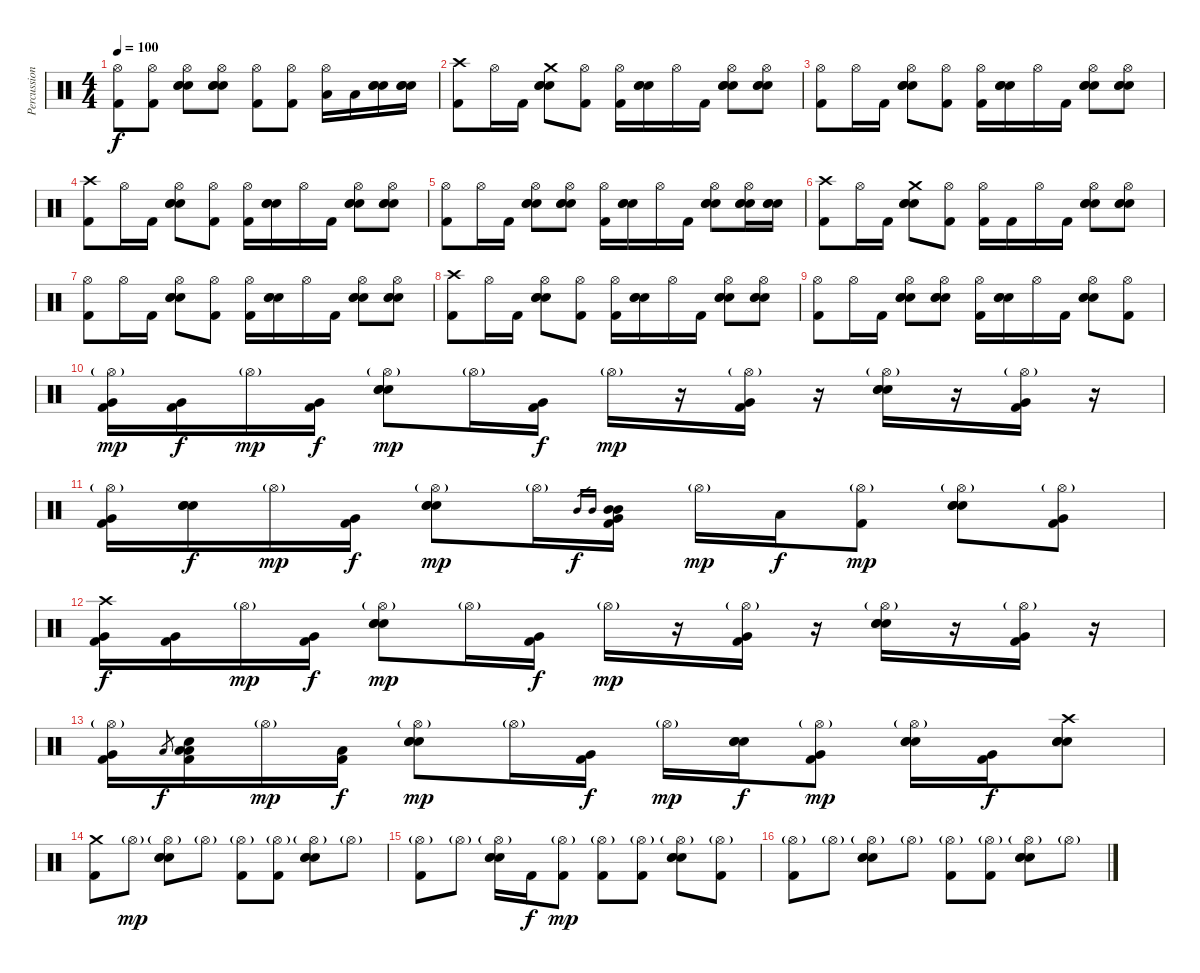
\track ("Percussions" "Percussion") {instrument percussion}
\staff {score}
\articulation defaults
\ts (4 4)
\tempo 100
\clef neutral
\ks c
("Hi-Hat (open)" "Kick (hit) 2").8{dy f} ("Hi-Hat (open)" "Kick (hit) 2").8 ("Hi-Hat (open)" "Snare (hit) 2" "Electric Snare (hit)" "Electric Snare (hit)").8 ("Hi-Hat (open)" "Snare (hit) 2" "Electric Snare (hit)" "Electric Snare (hit)").8 ("Hi-Hat (open)" "Kick (hit) 2").8 ("Hi-Hat (open)" "Kick (hit) 2").8 ("Hi-Hat (open)" "Low Tom (hit)").16 "Low Tom (hit)".16 ("Snare (hit) 2" "Electric Snare (hit)" "Electric Snare (hit)").16 ("Snare (hit) 2" "Electric Snare (hit)" "Electric Snare (hit)").16 |
("Crash high (hit)" "Kick (hit) 2").8 "Hi-Hat (open)".16 "Kick (hit) 2".16 ("Crash medium (hit)" "Snare (hit) 2" "Electric Snare (hit)" "Electric Snare (hit)").8 ("Hi-Hat (open)" "Kick (hit) 2").8 ("Hi-Hat (open)" "Kick (hit) 2").16 ("Snare (hit) 2" "Electric Snare (hit)" "Electric Snare (hit)").16 "Hi-Hat (open)".16 "Kick (hit) 2".16 ("Hi-Hat (open)" "Snare (hit) 2" "Electric Snare (hit)" "Electric Snare (hit)").8 ("Hi-Hat (open)" "Snare (hit) 2" "Electric Snare (hit)" "Electric Snare (hit)").8 |
("Hi-Hat (open)" "Kick (hit) 2").8 "Hi-Hat (open)".16 "Kick (hit) 2".16 ("Hi-Hat (open)" "Snare (hit) 2" "Electric Snare (hit)" "Electric Snare (hit)").8 ("Hi-Hat (open)" "Kick (hit) 2").8 ("Hi-Hat (open)" "Kick (hit) 2").16 ("Snare (hit) 2" "Electric Snare (hit)" "Electric Snare (hit)").16 "Hi-Hat (open)".16 "Kick (hit) 2".16 ("Hi-Hat (open)" "Snare (hit) 2" "Electric Snare (hit)" "Electric Snare (hit)").8 ("Hi-Hat (open)" "Snare (hit) 2" "Electric Snare (hit)" "Electric Snare (hit)").8 |
("Crash high (hit)" "Kick (hit) 2").8 "Hi-Hat (open)".16 "Kick (hit) 2".16 ("Hi-Hat (open)" "Snare (hit) 2" "Electric Snare (hit)" "Electric Snare (hit)").8 ("Hi-Hat (open)" "Kick (hit) 2").8 ("Hi-Hat (open)" "Kick (hit) 2").16 ("Snare (hit) 2" "Electric Snare (hit)" "Electric Snare (hit)").16 "Hi-Hat (open)".16 "Kick (hit) 2".16 ("Hi-Hat (open)" "Snare (hit) 2" "Electric Snare (hit)" "Electric Snare (hit)").8 ("Hi-Hat (open)" "Snare (hit) 2" "Electric Snare (hit)" "Electric Snare (hit)").8 |
("Hi-Hat (open)" "Kick (hit) 2").8 "Hi-Hat (open)".16 "Kick (hit) 2".16 ("Hi-Hat (open)" "Snare (hit) 2" "Electric Snare (hit)" "Electric Snare (hit)").8 ("Hi-Hat (open)" "Snare (hit) 2" "Electric Snare (hit)" "Electric Snare (hit)").8 ("Hi-Hat (open)" "Kick (hit) 2").16 ("Snare (hit) 2" "Electric Snare (hit)" "Electric Snare (hit)").16 "Hi-Hat (open)".16 "Kick (hit) 2".16 ("Hi-Hat (open)" "Snare (hit) 2" "Electric Snare (hit)" "Electric Snare (hit)").8 ("Hi-Hat (open)" "Snare (hit) 2" "Electric Snare (hit)" "Electric Snare (hit)").16 ("Snare (hit) 2" "Electric Snare (hit)" "Electric Snare (hit)").16 |
("Crash high (hit)" "Kick (hit) 2").8 "Hi-Hat (open)".16 "Kick (hit) 2".16 ("Crash medium (hit)" "Snare (hit) 2" "Electric Snare (hit)" "Electric Snare (hit)").8 ("Hi-Hat (open)" "Kick (hit) 2").8 ("Hi-Hat (open)" "Kick (hit) 2").16 "Kick (hit) 2".16 "Hi-Hat (open)".16 "Kick (hit) 2".16 ("Hi-Hat (open)" "Snare (hit) 2" "Electric Snare (hit)" "Electric Snare (hit)").8 ("Hi-Hat (open)" "Snare (hit) 2" "Electric Snare (hit)" "Electric Snare (hit)").8 |
("Hi-Hat (open)" "Kick (hit) 2").8 "Hi-Hat (open)".16 "Kick (hit) 2".16 ("Hi-Hat (open)" "Snare (hit) 2" "Electric Snare (hit)" "Electric Snare (hit)").8 ("Hi-Hat (open)" "Kick (hit) 2").8 ("Hi-Hat (open)" "Kick (hit) 2").16 ("Snare (hit) 2" "Electric Snare (hit)" "Electric Snare (hit)").16 "Hi-Hat (open)".16 "Kick (hit) 2".16 ("Hi-Hat (open)" "Snare (hit) 2" "Electric Snare (hit)" "Electric Snare (hit)").8 ("Hi-Hat (open)" "Snare (hit) 2" "Electric Snare (hit)" "Electric Snare (hit)").8 |
("Crash high (hit)" "Kick (hit) 2").8 "Hi-Hat (open)".16 "Kick (hit) 2".16 ("Hi-Hat (open)" "Snare (hit) 2" "Electric Snare (hit)" "Electric Snare (hit)").8 ("Hi-Hat (open)" "Kick (hit) 2").8 ("Hi-Hat (open)" "Kick (hit) 2").16 ("Snare (hit) 2" "Electric Snare (hit)" "Electric Snare (hit)").16 "Hi-Hat (open)".16 "Kick (hit) 2".16 ("Hi-Hat (open)" "Snare (hit) 2" "Electric Snare (hit)" "Electric Snare (hit)").8 ("Hi-Hat (open)" "Snare (hit) 2" "Electric Snare (hit)" "Electric Snare (hit)").8 |
("Hi-Hat (open)" "Kick (hit) 2").8 "Hi-Hat (open)".16 "Kick (hit) 2".16 ("Hi-Hat (open)" "Snare (hit) 2" "Electric Snare (hit)" "Electric Snare (hit)").8 ("Hi-Hat (open)" "Snare (hit) 2" "Electric Snare (hit)" "Electric Snare (hit)").8 ("Hi-Hat (open)" "Kick (hit) 2").16 ("Snare (hit) 2" "Electric Snare (hit)" "Electric Snare (hit)").16 "Hi-Hat (open)".16 "Kick (hit) 2".16 ("Hi-Hat (open)" "Snare (hit) 2" "Electric Snare (hit)" "Electric Snare (hit)").8 ("Hi-Hat (open)" "Kick (hit) 2").8 |
("Hi-Hat (open)"{g} "Kick (hit) 2" "Very Low Tom (hit)").16{dy mp} ("Kick (hit) 2" "Very Low Tom (hit)").16{dy f} "Hi-Hat (open)"{g}.16{dy mp} ("Kick (hit) 2" "Very Low Tom (hit)").16{dy f} ("Hi-Hat (open)"{g} "Snare (hit) 2" "Electric Snare (hit)" "Electric Snare (hit)").8{dy mp} "Hi-Hat (open)"{g}.16 ("Kick (hit) 2" "Very Low Tom (hit)").16{dy f} "Hi-Hat (open)"{g}.16{dy mp} r.16 ("Hi-Hat (open)"{g} "Kick (hit) 2" "Very Low Tom (hit)").16 r.16 ("Hi-Hat (open)"{g} "Snare (hit) 2" "Electric Snare (hit)" "Electric Snare (hit)").16 r.16 ("Hi-Hat (open)"{g} "Kick (hit) 2" "Very Low Tom (hit)").16 r.16 |
("Hi-Hat (open)"{g} "Kick (hit) 2" "Very Low Tom (hit)").16 ("Snare (hit) 2" "Electric Snare (hit)" "Electric Snare (hit)").16{dy f} "Hi-Hat (open)"{g}.16{dy mp} ("Kick (hit) 2" "Very Low Tom (hit)").16{dy f} ("Hi-Hat (open)"{g} "Snare (hit) 2" "Electric Snare (hit)" "Electric Snare (hit)").8{dy mp} "Hi-Hat (open)"{g}.16 "Mid Tom (hit)".16{gr dy f} "Mid Tom (hit)".16{gr} ("Mid Tom (hit)" "Mid Tom (hit)" "Very Low Tom (hit)" "Kick (hit) 2").16 "Hi-Hat (open)"{g}.16{dy mp} "Low Tom (hit)".16{dy f} ("Hi-Hat (open)"{g} "Kick (hit) 2").8{dy mp} ("Hi-Hat (open)"{g} "Snare (hit) 2" "Electric Snare (hit)" "Electric Snare (hit)").8 ("Hi-Hat (open)"{g} "Kick (hit) 2" "Very Low Tom (hit)").8 |
("Crash high (hit)" "Kick (hit) 2" "Very Low Tom (hit)").16{dy f} ("Kick (hit) 2" "Very Low Tom (hit)").16 "Hi-Hat (open)"{g}.16{dy mp} ("Kick (hit) 2" "Very Low Tom (hit)").16{dy f} ("Hi-Hat (open)"{g} "Snare (hit) 2" "Electric Snare (hit)" "Electric Snare (hit)").8{dy mp} "Hi-Hat (open)"{g}.16 ("Kick (hit) 2" "Very Low Tom (hit)").16{dy f} "Hi-Hat (open)"{g}.16{dy mp} r.16 ("Hi-Hat (open)"{g} "Kick (hit) 2" "Very Low Tom (hit)").16 r.16 ("Hi-Hat (open)"{g} "Snare (hit) 2" "Electric Snare (hit)" "Electric Snare (hit)").16 r.16 ("Hi-Hat (open)"{g} "Kick (hit) 2" "Very Low Tom (hit)").16 r.16 |
("Hi-Hat (open)"{g} "Kick (hit) 2" "Very Low Tom (hit)").16 "Low Floor Tom (hit)".8{gr dy f} ("Snare (hit) 2" "Low Tom (hit)" "Low Floor Tom (hit)" "Kick (hit) 2").16 "Hi-Hat (open)"{g}.16{dy mp} ("Kick (hit) 2" "Low Tom (hit)").16{dy f} ("Hi-Hat (open)"{g} "Snare (hit) 2" "Electric Snare (hit)" "Electric Snare (hit)").8{dy mp} "Hi-Hat (open)"{g}.16 ("Kick (hit) 2" "Very Low Tom (hit)").16{dy f} "Hi-Hat (open)"{g}.16{dy mp} ("Snare (hit) 2" "Electric Snare (hit)" "Electric Snare (hit)").16{dy f} ("Hi-Hat (open)"{g} "Kick (hit) 2" "Very Low Tom (hit)").8{dy mp} ("Hi-Hat (open)"{g} "Snare (hit) 2" "Electric Snare (hit)" "Electric Snare (hit)").16 ("Kick (hit) 2" "Very Low Tom (hit)").16{dy f} ("Crash high (hit)" "Snare (hit) 2" "Electric Snare (hit)" "Electric Snare (hit)").8 |
("Crash medium (hit)" "Kick (hit) 2").8 "Hi-Hat (open)"{g}.8{dy mp} ("Hi-Hat (open)"{g} "Snare (hit) 2" "Electric Snare (hit)" "Electric Snare (hit)").8 "Hi-Hat (open)"{g}.8 ("Hi-Hat (open)"{g} "Kick (hit) 2").8 ("Hi-Hat (open)"{g} "Kick (hit) 2").8 ("Hi-Hat (open)"{g} "Snare (hit) 2" "Electric Snare (hit)" "Electric Snare (hit)").8 "Hi-Hat (open)"{g}.8 |
("Hi-Hat (open)"{g} "Kick (hit) 2").8 "Hi-Hat (open)"{g}.8 ("Hi-Hat (open)"{g} "Snare (hit) 2" "Electric Snare (hit)" "Electric Snare (hit)").16 "Kick (hit) 2".16{dy f} ("Hi-Hat (open)"{g} "Kick (hit) 2").8{dy mp} ("Hi-Hat (open)"{g} "Kick (hit) 2").8 ("Hi-Hat (open)"{g} "Kick (hit) 2").8 ("Hi-Hat (open)"{g} "Snare (hit) 2" "Electric Snare (hit)" "Electric Snare (hit)").8 ("Hi-Hat (open)"{g} "Kick (hit) 2").8 |
("Hi-Hat (open)"{g} "Kick (hit) 2").8 "Hi-Hat (open)"{g}.8 ("Hi-Hat (open)"{g} "Snare (hit) 2" "Electric Snare (hit)" "Electric Snare (hit)").8 "Hi-Hat (open)"{g}.8 ("Hi-Hat (open)"{g} "Kick (hit) 2").8 ("Hi-Hat (open)"{g} "Kick (hit) 2").8 ("Hi-Hat (open)"{g} "Snare (hit) 2" "Electric Snare (hit)" "Electric Snare (hit)").8 "Hi-Hat (open)"{g}.8
